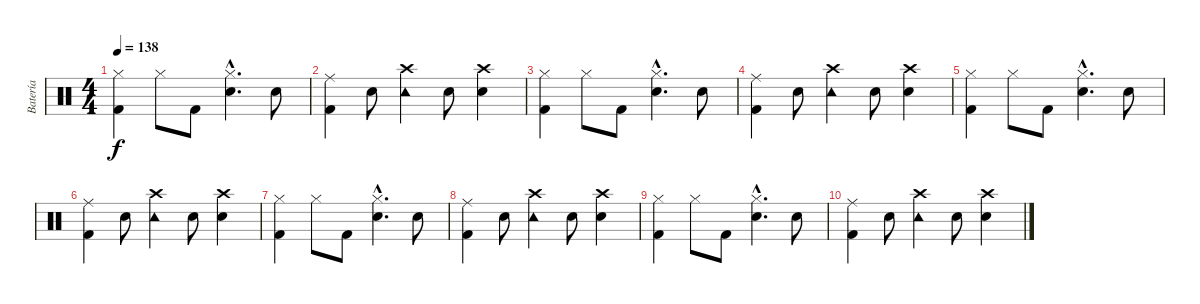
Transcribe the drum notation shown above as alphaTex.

\track ("Batería" "Batería") {instrument percussion}
\staff {score}
\articulation defaults
\ts (4 4)
\tempo 138
\clef neutral
\ks c
("Kick (hit) 2" "Hi-Hat (closed)").4{dy f} "Hi-Hat (closed)".8 "Kick (hit) 2".8 ("Electric Snare (hit)"{hac} "Hi-Hat (closed)"{hac}).4{d} "Electric Snare (hit)".8 |
("Kick (hit) 2" "Ride (middle)").4 "Electric Snare (hit)".8 ("Crash high (hit)" "Tambourine (hit)").4 "Electric Snare (hit)".8 ("Electric Snare (hit)" "Crash high (hit)").4 |
("Kick (hit) 2" "Hi-Hat (closed)").4 "Hi-Hat (closed)".8 "Kick (hit) 2".8 ("Electric Snare (hit)"{hac} "Hi-Hat (closed)"{hac}).4{d} "Electric Snare (hit)".8 |
("Kick (hit) 2" "Ride (middle)").4 "Electric Snare (hit)".8 ("Crash high (hit)" "Tambourine (hit)").4 "Electric Snare (hit)".8 ("Electric Snare (hit)" "Crash high (hit)").4 |
("Kick (hit) 2" "Hi-Hat (closed)").4 "Hi-Hat (closed)".8 "Kick (hit) 2".8 ("Electric Snare (hit)"{hac} "Hi-Hat (closed)"{hac}).4{d} "Electric Snare (hit)".8 |
("Kick (hit) 2" "Ride (middle)").4 "Electric Snare (hit)".8 ("Crash high (hit)" "Tambourine (hit)").4 "Electric Snare (hit)".8 ("Electric Snare (hit)" "Crash high (hit)").4 |
("Kick (hit) 2" "Hi-Hat (closed)").4 "Hi-Hat (closed)".8 "Kick (hit) 2".8 ("Electric Snare (hit)"{hac} "Hi-Hat (closed)"{hac}).4{d} "Electric Snare (hit)".8 |
("Kick (hit) 2" "Ride (middle)").4 "Electric Snare (hit)".8 ("Crash high (hit)" "Tambourine (hit)").4 "Electric Snare (hit)".8 ("Electric Snare (hit)" "Crash high (hit)").4 |
("Kick (hit) 2" "Hi-Hat (closed)").4 "Hi-Hat (closed)".8 "Kick (hit) 2".8 ("Electric Snare (hit)"{hac} "Hi-Hat (closed)"{hac}).4{d} "Electric Snare (hit)".8 |
("Kick (hit) 2" "Ride (middle)").4 "Electric Snare (hit)".8 ("Crash high (hit)" "Tambourine (hit)").4 "Electric Snare (hit)".8 ("Electric Snare (hit)" "Crash high (hit)").4
